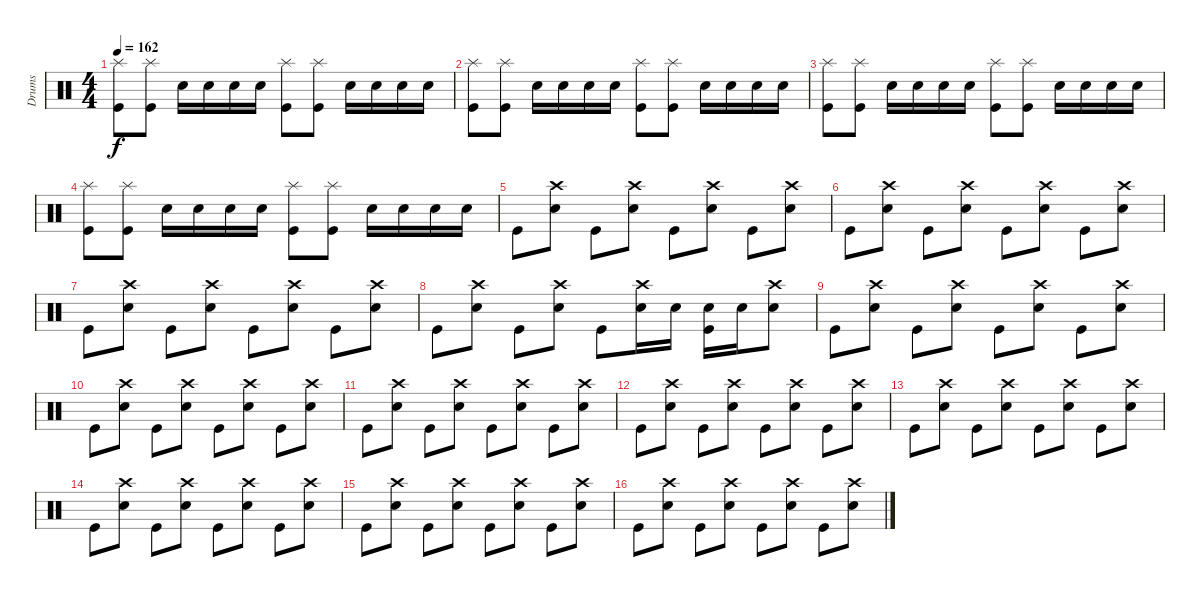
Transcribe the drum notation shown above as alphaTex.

\track ("Drums" "Drums") {instrument percussion}
\staff {score}
\articulation defaults
\ts (4 4)
\tempo 162
\clef neutral
\ks c
("Kick (hit)" "Splash (hit)").8{dy f} ("Kick (hit)" "Splash (hit)").8 "Snare (hit) 2".16 "Snare (hit) 2".16 "Snare (hit) 2".16 "Snare (hit) 2".16 ("Kick (hit)" "Splash (hit)").8 ("Kick (hit)" "Splash (hit)").8 "Snare (hit) 2".16 "Snare (hit) 2".16 "Snare (hit) 2".16 "Snare (hit) 2".16 |
("Kick (hit)" "Splash (hit)").8 ("Kick (hit)" "Splash (hit)").8 "Snare (hit) 2".16 "Snare (hit) 2".16 "Snare (hit) 2".16 "Snare (hit) 2".16 ("Kick (hit)" "Splash (hit)").8 ("Kick (hit)" "Splash (hit)").8 "Snare (hit) 2".16 "Snare (hit) 2".16 "Snare (hit) 2".16 "Snare (hit) 2".16 |
("Kick (hit)" "Splash (hit)").8 ("Kick (hit)" "Splash (hit)").8 "Snare (hit) 2".16 "Snare (hit) 2".16 "Snare (hit) 2".16 "Snare (hit) 2".16 ("Kick (hit)" "Splash (hit)").8 ("Kick (hit)" "Splash (hit)").8 "Snare (hit) 2".16 "Snare (hit) 2".16 "Snare (hit) 2".16 "Snare (hit) 2".16 |
("Kick (hit)" "Splash (hit)").8 ("Kick (hit)" "Splash (hit)").8 "Snare (hit) 2".16 "Snare (hit) 2".16 "Snare (hit) 2".16 "Snare (hit) 2".16 ("Kick (hit)" "Splash (hit)").8 ("Kick (hit)" "Splash (hit)").8 "Snare (hit) 2".16 "Snare (hit) 2".16 "Snare (hit) 2".16 "Snare (hit) 2".16 |
"Kick (hit)".8 ("Snare (hit) 2" "Crash high (hit)").8 "Kick (hit)".8 ("Snare (hit) 2" "Crash high (hit)").8 "Kick (hit)".8 ("Snare (hit) 2" "Crash high (hit)").8 "Kick (hit)".8 ("Snare (hit) 2" "Crash high (hit)").8 |
"Kick (hit)".8 ("Snare (hit) 2" "Crash high (hit)").8 "Kick (hit)".8 ("Snare (hit) 2" "Crash high (hit)").8 "Kick (hit)".8 ("Snare (hit) 2" "Crash high (hit)").8 "Kick (hit)".8 ("Snare (hit) 2" "Crash high (hit)").8 |
"Kick (hit)".8 ("Snare (hit) 2" "Crash high (hit)").8 "Kick (hit)".8 ("Snare (hit) 2" "Crash high (hit)").8 "Kick (hit)".8 ("Snare (hit) 2" "Crash high (hit)").8 "Kick (hit)".8 ("Snare (hit) 2" "Crash high (hit)").8 |
"Kick (hit)".8 ("Snare (hit) 2" "Crash high (hit)").8 "Kick (hit)".8 ("Snare (hit) 2" "Crash high (hit)").8 "Kick (hit)".8 ("Snare (hit) 2" "Crash high (hit)").16 "Snare (hit) 2".16 ("Kick (hit)" "Snare (hit) 2").16 "Snare (hit) 2".16 ("Snare (hit) 2" "Crash high (hit)").8 |
"Kick (hit)".8 ("Snare (hit) 2" "Crash high (hit)").8 "Kick (hit)".8 ("Snare (hit) 2" "Crash high (hit)").8 "Kick (hit)".8 ("Snare (hit) 2" "Crash high (hit)").8 "Kick (hit)".8 ("Snare (hit) 2" "Crash high (hit)").8 |
"Kick (hit)".8 ("Snare (hit) 2" "Crash high (hit)").8 "Kick (hit)".8 ("Snare (hit) 2" "Crash high (hit)").8 "Kick (hit)".8 ("Snare (hit) 2" "Crash high (hit)").8 "Kick (hit)".8 ("Snare (hit) 2" "Crash high (hit)").8 |
"Kick (hit)".8 ("Snare (hit) 2" "Crash high (hit)").8 "Kick (hit)".8 ("Snare (hit) 2" "Crash high (hit)").8 "Kick (hit)".8 ("Snare (hit) 2" "Crash high (hit)").8 "Kick (hit)".8 ("Snare (hit) 2" "Crash high (hit)").8 |
"Kick (hit)".8 ("Snare (hit) 2" "Crash high (hit)").8 "Kick (hit)".8 ("Snare (hit) 2" "Crash high (hit)").8 "Kick (hit)".8 ("Snare (hit) 2" "Crash high (hit)").8 "Kick (hit)".8 ("Snare (hit) 2" "Crash high (hit)").8 |
"Kick (hit)".8 ("Snare (hit) 2" "Crash high (hit)").8 "Kick (hit)".8 ("Snare (hit) 2" "Crash high (hit)").8 "Kick (hit)".8 ("Snare (hit) 2" "Crash high (hit)").8 "Kick (hit)".8 ("Snare (hit) 2" "Crash high (hit)").8 |
"Kick (hit)".8 ("Snare (hit) 2" "Crash high (hit)").8 "Kick (hit)".8 ("Snare (hit) 2" "Crash high (hit)").8 "Kick (hit)".8 ("Snare (hit) 2" "Crash high (hit)").8 "Kick (hit)".8 ("Snare (hit) 2" "Crash high (hit)").8 |
"Kick (hit)".8 ("Snare (hit) 2" "Crash high (hit)").8 "Kick (hit)".8 ("Snare (hit) 2" "Crash high (hit)").8 "Kick (hit)".8 ("Snare (hit) 2" "Crash high (hit)").8 "Kick (hit)".8 ("Snare (hit) 2" "Crash high (hit)").8 |
"Kick (hit)".8 ("Snare (hit) 2" "Crash high (hit)").8 "Kick (hit)".8 ("Snare (hit) 2" "Crash high (hit)").8 "Kick (hit)".8 ("Snare (hit) 2" "Crash high (hit)").8 "Kick (hit)".8 ("Snare (hit) 2" "Crash high (hit)").8
